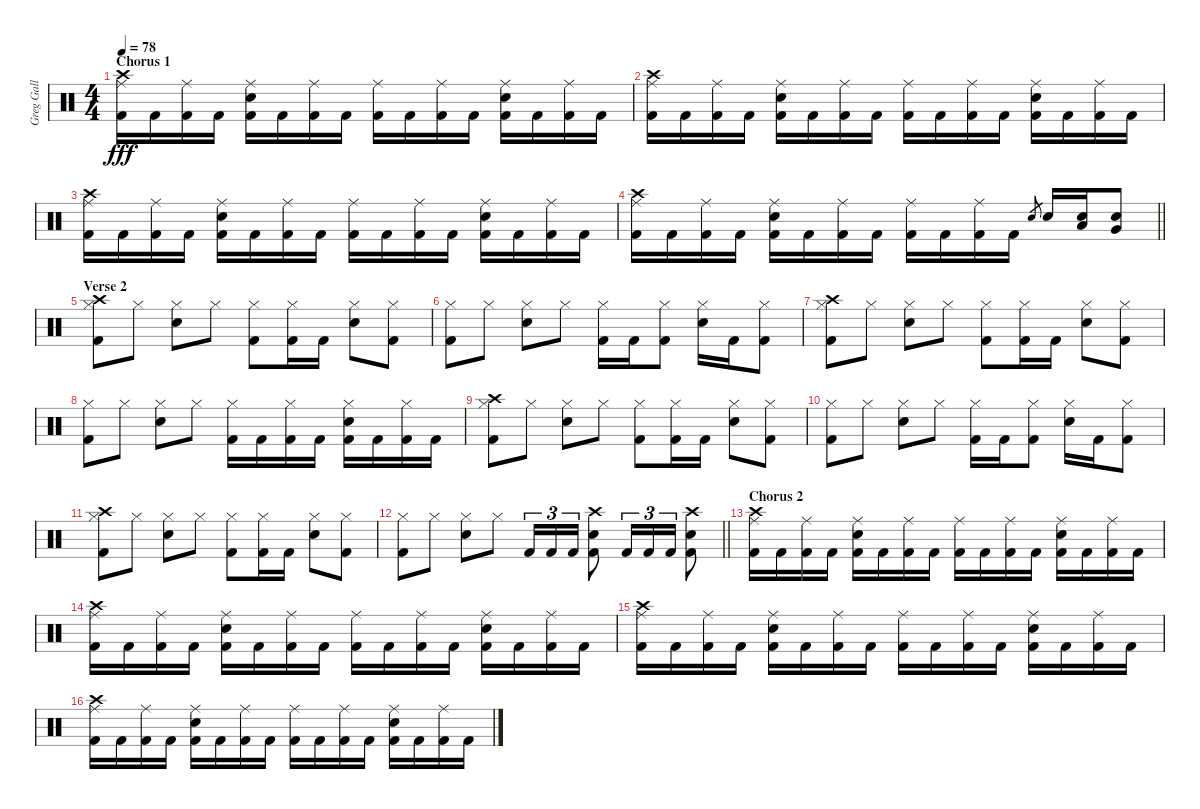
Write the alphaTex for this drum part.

\track ("Greg Gall" "Greg Gall") {instrument percussion}
\staff {score}
\articulation defaults
\ts (4 4)
\section ("" "Chorus 1")
\tempo 78
\clef neutral
\ks c
("Crash high (hit)" "Ride (middle)" "Kick (hit) 2").16{dy fff} "Kick (hit) 2".16 ("Ride (middle)" "Kick (hit) 2").16 "Kick (hit) 2".16 ("Ride (middle)" "Electric Snare (hit)" "Kick (hit) 2").16 "Kick (hit) 2".16 ("Ride (middle)" "Kick (hit) 2").16 "Kick (hit) 2".16 ("Ride (middle)" "Kick (hit) 2").16 "Kick (hit) 2".16 ("Ride (middle)" "Kick (hit) 2").16 "Kick (hit) 2".16 ("Ride (middle)" "Electric Snare (hit)" "Kick (hit) 2").16 "Kick (hit) 2".16 ("Ride (middle)" "Kick (hit) 2").16 "Kick (hit) 2".16 |
("Crash high (hit)" "Ride (middle)" "Kick (hit) 2").16 "Kick (hit) 2".16 ("Ride (middle)" "Kick (hit) 2").16 "Kick (hit) 2".16 ("Ride (middle)" "Electric Snare (hit)" "Kick (hit) 2").16 "Kick (hit) 2".16 ("Ride (middle)" "Kick (hit) 2").16 "Kick (hit) 2".16 ("Ride (middle)" "Kick (hit) 2").16 "Kick (hit) 2".16 ("Ride (middle)" "Kick (hit) 2").16 "Kick (hit) 2".16 ("Ride (middle)" "Electric Snare (hit)" "Kick (hit) 2").16 "Kick (hit) 2".16 ("Ride (middle)" "Kick (hit) 2").16 "Kick (hit) 2".16 |
("Crash high (hit)" "Ride (middle)" "Kick (hit) 2").16 "Kick (hit) 2".16 ("Ride (middle)" "Kick (hit) 2").16 "Kick (hit) 2".16 ("Ride (middle)" "Electric Snare (hit)" "Kick (hit) 2").16 "Kick (hit) 2".16 ("Ride (middle)" "Kick (hit) 2").16 "Kick (hit) 2".16 ("Ride (middle)" "Kick (hit) 2").16 "Kick (hit) 2".16 ("Ride (middle)" "Kick (hit) 2").16 "Kick (hit) 2".16 ("Ride (middle)" "Electric Snare (hit)" "Kick (hit) 2").16 "Kick (hit) 2".16 ("Ride (middle)" "Kick (hit) 2").16 "Kick (hit) 2".16 |
\barLineRight lightlight
("Crash high (hit)" "Ride (middle)" "Kick (hit) 2").16 "Kick (hit) 2".16 ("Ride (middle)" "Kick (hit) 2").16 "Kick (hit) 2".16 ("Ride (middle)" "Electric Snare (hit)" "Kick (hit) 2").16 "Kick (hit) 2".16 ("Ride (middle)" "Kick (hit) 2").16 "Kick (hit) 2".16 ("Ride (middle)" "Kick (hit) 2").16 "Kick (hit) 2".16 ("Ride (middle)" "Kick (hit) 2").16 "Kick (hit) 2".16 "Electric Snare (hit)".8{gr} "Electric Snare (hit)".16 ("Low Tom (hit)" "Electric Snare (hit)").16 ("Very Low Tom (hit)" "Electric Snare (hit)").8 |
\section ("" "Verse 2")
("Crash high (hit)" "Hi-Hat (closed)" "Kick (hit) 2").8 "Hi-Hat (closed)".8 ("Hi-Hat (closed)" "Electric Snare (hit)").8 "Hi-Hat (closed)".8 ("Hi-Hat (closed)" "Kick (hit) 2").8 ("Hi-Hat (closed)" "Kick (hit) 2").16 "Kick (hit) 2".16 ("Hi-Hat (closed)" "Electric Snare (hit)").8 ("Hi-Hat (closed)" "Kick (hit) 2").8 |
("Hi-Hat (closed)" "Kick (hit) 2").8 "Hi-Hat (closed)".8 ("Hi-Hat (closed)" "Electric Snare (hit)").8 "Hi-Hat (closed)".8 ("Hi-Hat (closed)" "Kick (hit) 2").16 "Kick (hit) 2".16 ("Hi-Hat (closed)" "Kick (hit) 2").8 ("Hi-Hat (closed)" "Electric Snare (hit)").16 "Kick (hit) 2".16 ("Hi-Hat (closed)" "Kick (hit) 2").8 |
("Crash high (hit)" "Hi-Hat (closed)" "Kick (hit) 2").8 "Hi-Hat (closed)".8 ("Hi-Hat (closed)" "Electric Snare (hit)").8 "Hi-Hat (closed)".8 ("Hi-Hat (closed)" "Kick (hit) 2").8 ("Hi-Hat (closed)" "Kick (hit) 2").16 "Kick (hit) 2".16 ("Hi-Hat (closed)" "Electric Snare (hit)").8 ("Hi-Hat (closed)" "Kick (hit) 2").8 |
("Hi-Hat (closed)" "Kick (hit) 2").8 "Hi-Hat (closed)".8 ("Hi-Hat (closed)" "Electric Snare (hit)").8 "Hi-Hat (closed)".8 ("Hi-Hat (closed)" "Kick (hit) 2").16 "Kick (hit) 2".16 ("Hi-Hat (closed)" "Kick (hit) 2").16 "Kick (hit) 2".16 ("Hi-Hat (closed)" "Electric Snare (hit)" "Kick (hit) 2").16 "Kick (hit) 2".16 ("Hi-Hat (closed)" "Kick (hit) 2").16 "Kick (hit) 2".16 |
("Crash high (hit)" "Hi-Hat (closed)" "Kick (hit) 2").8 "Hi-Hat (closed)".8 ("Hi-Hat (closed)" "Electric Snare (hit)").8 "Hi-Hat (closed)".8 ("Hi-Hat (closed)" "Kick (hit) 2").8 ("Hi-Hat (closed)" "Kick (hit) 2").16 "Kick (hit) 2".16 ("Hi-Hat (closed)" "Electric Snare (hit)").8 ("Hi-Hat (closed)" "Kick (hit) 2").8 |
("Hi-Hat (closed)" "Kick (hit) 2").8 "Hi-Hat (closed)".8 ("Hi-Hat (closed)" "Electric Snare (hit)").8 "Hi-Hat (closed)".8 ("Hi-Hat (closed)" "Kick (hit) 2").16 "Kick (hit) 2".16 ("Hi-Hat (closed)" "Kick (hit) 2").8 ("Hi-Hat (closed)" "Electric Snare (hit)").16 "Kick (hit) 2".16 ("Hi-Hat (closed)" "Kick (hit) 2").8 |
("Crash high (hit)" "Hi-Hat (closed)" "Kick (hit) 2").8 "Hi-Hat (closed)".8 ("Hi-Hat (closed)" "Electric Snare (hit)").8 "Hi-Hat (closed)".8 ("Hi-Hat (closed)" "Kick (hit) 2").8 ("Hi-Hat (closed)" "Kick (hit) 2").16 "Kick (hit) 2".16 ("Hi-Hat (closed)" "Electric Snare (hit)").8 ("Hi-Hat (closed)" "Kick (hit) 2").8 |
\barLineRight lightlight
("Hi-Hat (closed)" "Kick (hit) 2").8 "Hi-Hat (closed)".8 ("Hi-Hat (closed)" "Electric Snare (hit)").8 "Hi-Hat (closed)".8 "Kick (hit) 2".16{tu (3 2)} "Kick (hit) 2".16{tu (3 2)} "Kick (hit) 2".16{tu (3 2)} ("Crash high (hit)" "Electric Snare (hit)" "Kick (hit) 2").8 "Kick (hit) 2".16{tu (3 2)} "Kick (hit) 2".16{tu (3 2)} "Kick (hit) 2".16{tu (3 2)} ("Crash high (hit)" "Electric Snare (hit)" "Kick (hit) 2").8 |
\section ("" "Chorus 2")
("Crash high (hit)" "Ride (middle)" "Kick (hit) 2").16 "Kick (hit) 2".16 ("Ride (middle)" "Kick (hit) 2").16 "Kick (hit) 2".16 ("Ride (middle)" "Electric Snare (hit)" "Kick (hit) 2").16 "Kick (hit) 2".16 ("Ride (middle)" "Kick (hit) 2").16 "Kick (hit) 2".16 ("Ride (middle)" "Kick (hit) 2").16 "Kick (hit) 2".16 ("Ride (middle)" "Kick (hit) 2").16 "Kick (hit) 2".16 ("Ride (middle)" "Electric Snare (hit)" "Kick (hit) 2").16 "Kick (hit) 2".16 ("Ride (middle)" "Kick (hit) 2").16 "Kick (hit) 2".16 |
("Crash high (hit)" "Ride (middle)" "Kick (hit) 2").16 "Kick (hit) 2".16 ("Ride (middle)" "Kick (hit) 2").16 "Kick (hit) 2".16 ("Ride (middle)" "Electric Snare (hit)" "Kick (hit) 2").16 "Kick (hit) 2".16 ("Ride (middle)" "Kick (hit) 2").16 "Kick (hit) 2".16 ("Ride (middle)" "Kick (hit) 2").16 "Kick (hit) 2".16 ("Ride (middle)" "Kick (hit) 2").16 "Kick (hit) 2".16 ("Ride (middle)" "Electric Snare (hit)" "Kick (hit) 2").16 "Kick (hit) 2".16 ("Ride (middle)" "Kick (hit) 2").16 "Kick (hit) 2".16 |
("Crash high (hit)" "Ride (middle)" "Kick (hit) 2").16 "Kick (hit) 2".16 ("Ride (middle)" "Kick (hit) 2").16 "Kick (hit) 2".16 ("Ride (middle)" "Electric Snare (hit)" "Kick (hit) 2").16 "Kick (hit) 2".16 ("Ride (middle)" "Kick (hit) 2").16 "Kick (hit) 2".16 ("Ride (middle)" "Kick (hit) 2").16 "Kick (hit) 2".16 ("Ride (middle)" "Kick (hit) 2").16 "Kick (hit) 2".16 ("Ride (middle)" "Electric Snare (hit)" "Kick (hit) 2").16 "Kick (hit) 2".16 ("Ride (middle)" "Kick (hit) 2").16 "Kick (hit) 2".16 |
("Crash high (hit)" "Ride (middle)" "Kick (hit) 2").16 "Kick (hit) 2".16 ("Ride (middle)" "Kick (hit) 2").16 "Kick (hit) 2".16 ("Ride (middle)" "Electric Snare (hit)" "Kick (hit) 2").16 "Kick (hit) 2".16 ("Ride (middle)" "Kick (hit) 2").16 "Kick (hit) 2".16 ("Ride (middle)" "Kick (hit) 2").16 "Kick (hit) 2".16 ("Ride (middle)" "Kick (hit) 2").16 "Kick (hit) 2".16 ("Ride (middle)" "Electric Snare (hit)" "Kick (hit) 2").16 "Kick (hit) 2".16 ("Ride (middle)" "Kick (hit) 2").16 "Kick (hit) 2".16
